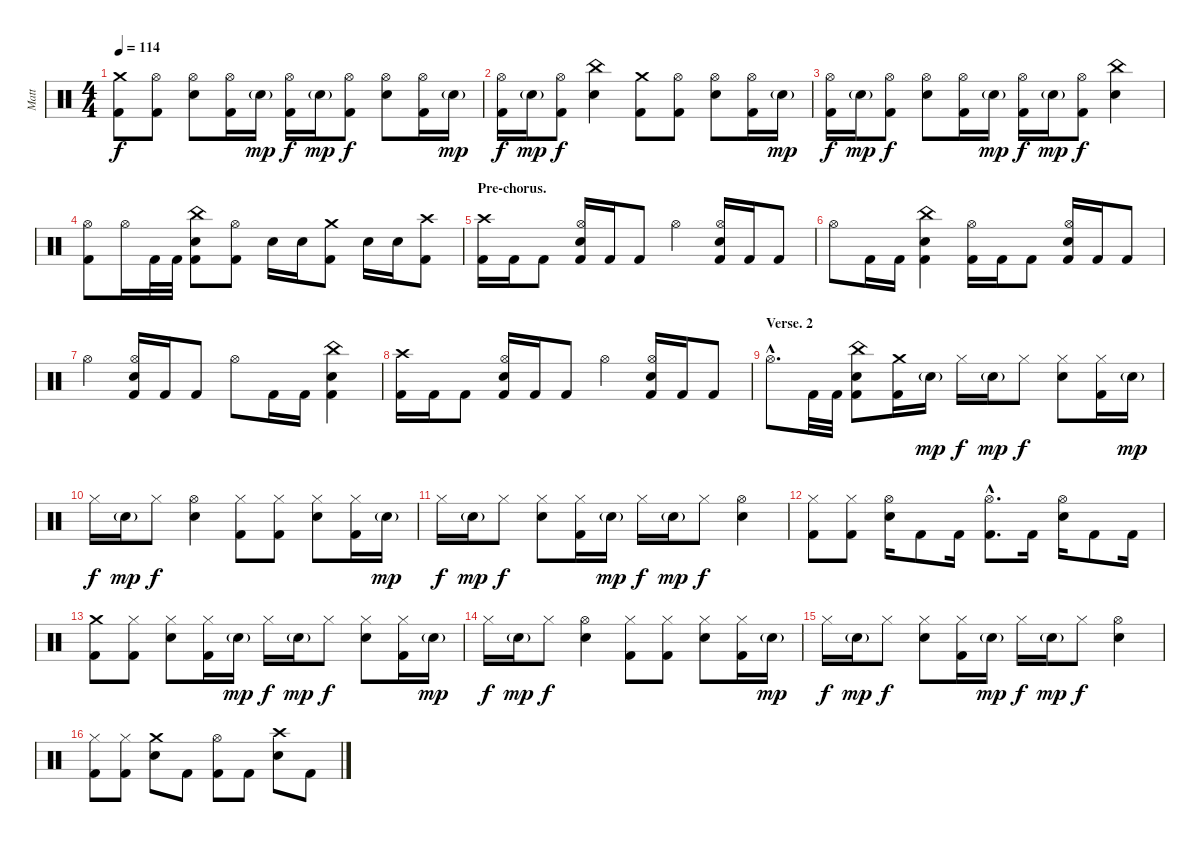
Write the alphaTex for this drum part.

\track ("Matt" "Matt") {instrument percussion}
\staff {score}
\articulation defaults
\ts (4 4)
\tempo 114
\clef neutral
\ks c
("Crash medium (hit)" "Kick (hit) 2").8{dy f} ("Hi-Hat (open)" "Kick (hit) 2").8 ("Hi-Hat (open)" "Electric Snare (hit)").8 ("Hi-Hat (open)" "Kick (hit) 2").16 "Electric Snare (hit)"{g}.16{dy mp} ("Hi-Hat (open)" "Kick (hit) 2").16{dy f} "Electric Snare (hit)"{g}.16{dy mp} ("Hi-Hat (open)" "Kick (hit) 2").8{dy f} ("Hi-Hat (open)" "Electric Snare (hit)").8 ("Hi-Hat (open)" "Kick (hit) 2").16 "Electric Snare (hit)"{g}.16{dy mp} |
("Hi-Hat (open)" "Kick (hit) 2").16{dy f} "Electric Snare (hit)"{g}.16{dy mp} ("Hi-Hat (open)" "Kick (hit) 2").8{dy f} ("China (hit)" "Electric Snare (hit)").4 ("Crash medium (hit)" "Kick (hit) 2").8 ("Hi-Hat (open)" "Kick (hit) 2").8 ("Hi-Hat (open)" "Electric Snare (hit)").8 ("Hi-Hat (open)" "Kick (hit) 2").16 "Electric Snare (hit)"{g}.16{dy mp} |
("Hi-Hat (open)" "Kick (hit) 2").16{dy f} "Electric Snare (hit)"{g}.16{dy mp} ("Hi-Hat (open)" "Kick (hit) 2").8{dy f} ("Hi-Hat (open)" "Electric Snare (hit)").8 ("Hi-Hat (open)" "Kick (hit) 2").16 "Electric Snare (hit)"{g}.16{dy mp} ("Hi-Hat (open)" "Kick (hit) 2").16{dy f} "Electric Snare (hit)"{g}.16{dy mp} ("Hi-Hat (open)" "Kick (hit) 2").8{dy f} ("China (hit)" "Electric Snare (hit)").4 |
("Hi-Hat (open)" "Kick (hit) 2").8 "Hi-Hat (open)".16 "Kick (hit) 2".32 "Kick (hit) 2".32 ("China (hit)" "Electric Snare (hit)" "Kick (hit) 2").8 ("Hi-Hat (open)" "Kick (hit) 2").8 "Electric Snare (hit)".16 "Electric Snare (hit)".16 ("Crash medium (hit)" "Kick (hit) 2").8 "Electric Snare (hit)".16 "Electric Snare (hit)".16 ("Crash high (hit)" "Kick (hit) 2").8 |
\section ("" "Pre-chorus. ")
("Crash high (hit)" "Kick (hit) 2").16 "Kick (hit) 2".16 "Kick (hit) 2".8 ("Hi-Hat (open)" "Electric Snare (hit)" "Kick (hit) 2").16 "Kick (hit) 2".16 "Kick (hit) 2".8 "Hi-Hat (open)".4 ("Hi-Hat (open)" "Electric Snare (hit)" "Kick (hit) 2").16 "Kick (hit) 2".16 "Kick (hit) 2".8 |
"Hi-Hat (open)".8 "Kick (hit) 2".16 "Kick (hit) 2".16 ("China (hit)" "Electric Snare (hit)" "Kick (hit) 2").4 ("Hi-Hat (open)" "Kick (hit) 2").16 "Kick (hit) 2".16 "Kick (hit) 2".8 ("Hi-Hat (open)" "Electric Snare (hit)" "Kick (hit) 2").16 "Kick (hit) 2".16 "Kick (hit) 2".8 |
"Hi-Hat (open)".4 ("Hi-Hat (open)" "Electric Snare (hit)" "Kick (hit) 2").16 "Kick (hit) 2".16 "Kick (hit) 2".8 "Hi-Hat (open)".8 "Kick (hit) 2".16 "Kick (hit) 2".16 ("China (hit)" "Electric Snare (hit)" "Kick (hit) 2").4 |
("Crash high (hit)" "Kick (hit) 2").16 "Kick (hit) 2".16 "Kick (hit) 2".8 ("Hi-Hat (open)" "Electric Snare (hit)" "Kick (hit) 2").16 "Kick (hit) 2".16 "Kick (hit) 2".8 "Hi-Hat (open)".4 ("Hi-Hat (open)" "Electric Snare (hit)" "Kick (hit) 2").16 "Kick (hit) 2".16 "Kick (hit) 2".8 |
\section ("" "Verse. 2")
"Hi-Hat (open)"{hac}.8{d} "Kick (hit) 2".32 "Kick (hit) 2".32 ("China (hit)" "Electric Snare (hit)" "Kick (hit) 2").8 ("Crash medium (hit)" "Kick (hit) 2").16 "Electric Snare (hit)"{g}.16{dy mp} "Hi-Hat (closed)".16{dy f} "Electric Snare (hit)"{g}.16{dy mp} "Hi-Hat (closed)".8{dy f} ("Hi-Hat (closed)" "Electric Snare (hit)").8 ("Hi-Hat (closed)" "Kick (hit) 2").16 "Electric Snare (hit)"{g}.16{dy mp} |
"Hi-Hat (closed)".16{dy f} "Electric Snare (hit)"{g}.16{dy mp} "Hi-Hat (closed)".8{dy f} ("Hi-Hat (open)" "Electric Snare (hit)").4 ("Hi-Hat (closed)" "Kick (hit) 2").8 ("Hi-Hat (closed)" "Kick (hit) 2").8 ("Hi-Hat (closed)" "Electric Snare (hit)").8 ("Hi-Hat (closed)" "Kick (hit) 2").16 "Electric Snare (hit)"{g}.16{dy mp} |
"Hi-Hat (closed)".16{dy f} "Electric Snare (hit)"{g}.16{dy mp} "Hi-Hat (closed)".8{dy f} ("Hi-Hat (closed)" "Electric Snare (hit)").8 ("Hi-Hat (closed)" "Kick (hit) 2").16 "Electric Snare (hit)"{g}.16{dy mp} "Hi-Hat (closed)".16{dy f} "Electric Snare (hit)"{g}.16{dy mp} "Hi-Hat (closed)".8{dy f} ("Hi-Hat (open)" "Electric Snare (hit)").4 |
("Hi-Hat (closed)" "Kick (hit) 2").8 ("Hi-Hat (closed)" "Kick (hit) 2").8 ("Hi-Hat (open)" "Electric Snare (hit)").16 "Kick (hit) 2".8 "Kick (hit) 2".16 ("Hi-Hat (open)"{hac} "Kick (hit) 2"{hac}).8{d} "Kick (hit) 2".16 ("Hi-Hat (open)" "Electric Snare (hit)").16 "Kick (hit) 2".8 "Kick (hit) 2".16 |
("Crash medium (hit)" "Kick (hit) 2").8 ("Hi-Hat (closed)" "Kick (hit) 2").8 ("Hi-Hat (closed)" "Electric Snare (hit)").8 ("Hi-Hat (closed)" "Kick (hit) 2").16 "Electric Snare (hit)"{g}.16{dy mp} "Hi-Hat (closed)".16{dy f} "Electric Snare (hit)"{g}.16{dy mp} "Hi-Hat (closed)".8{dy f} ("Hi-Hat (closed)" "Electric Snare (hit)").8 ("Hi-Hat (closed)" "Kick (hit) 2").16 "Electric Snare (hit)"{g}.16{dy mp} |
"Hi-Hat (closed)".16{dy f} "Electric Snare (hit)"{g}.16{dy mp} "Hi-Hat (closed)".8{dy f} ("Hi-Hat (open)" "Electric Snare (hit)").4 ("Hi-Hat (closed)" "Kick (hit) 2").8 ("Hi-Hat (closed)" "Kick (hit) 2").8 ("Hi-Hat (closed)" "Electric Snare (hit)").8 ("Hi-Hat (closed)" "Kick (hit) 2").16 "Electric Snare (hit)"{g}.16{dy mp} |
"Hi-Hat (closed)".16{dy f} "Electric Snare (hit)"{g}.16{dy mp} "Hi-Hat (closed)".8{dy f} ("Hi-Hat (closed)" "Electric Snare (hit)").8 ("Hi-Hat (closed)" "Kick (hit) 2").16 "Electric Snare (hit)"{g}.16{dy mp} "Hi-Hat (closed)".16{dy f} "Electric Snare (hit)"{g}.16{dy mp} "Hi-Hat (closed)".8{dy f} ("Hi-Hat (open)" "Electric Snare (hit)").4 |
("Hi-Hat (closed)" "Kick (hit) 2").8 ("Hi-Hat (closed)" "Kick (hit) 2").8 ("Crash medium (hit)" "Electric Snare (hit)").8 "Kick (hit) 2".8 ("Hi-Hat (open)" "Kick (hit) 2").8 "Kick (hit) 2".8 ("Crash high (hit)" "Electric Snare (hit)").8 "Kick (hit) 2".8
